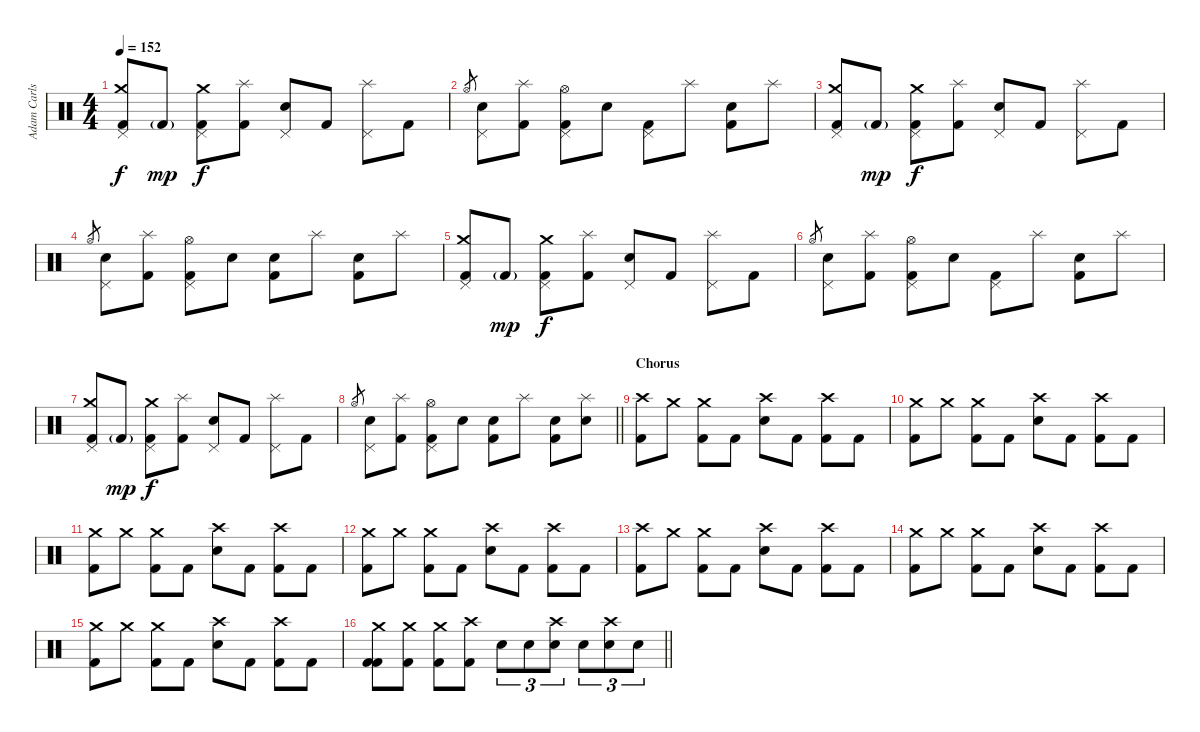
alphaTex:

\track ("Adam Carlson" "Adam Carls") {instrument percussion}
\staff {score}
\articulation defaults
\ts (4 4)
\tempo 152
\clef neutral
\ks c
("Pedal Hi-Hat (hit)" "Crash medium (hit)" "Kick (hit) 2").8{dy f} "Kick (hit) 2"{g}.8{dy mp} ("Pedal Hi-Hat (hit)" "Crash medium (hit)" "Kick (hit) 2").8{dy f} ("Splash (hit)" "Kick (hit) 2").8 ("Pedal Hi-Hat (hit)" "Electric Snare (hit)").8 "Kick (hit) 2".8 ("Pedal Hi-Hat (hit)" "Splash (hit)").8 "Kick (hit) 2".8 |
"Hi-Hat (open)".8{gr} ("Pedal Hi-Hat (hit)" "Electric Snare (hit)").8 ("Splash (hit)" "Kick (hit) 2").8 ("Pedal Hi-Hat (hit)" "Hi-Hat (open)" "Kick (hit) 2").8 "Electric Snare (hit)".8 ("Pedal Hi-Hat (hit)" "Kick (hit) 2").8 "Splash (hit)".8 ("Electric Snare (hit)" "Kick (hit) 2").8 "Splash (hit)".8 |
("Pedal Hi-Hat (hit)" "Crash medium (hit)" "Kick (hit) 2").8 "Kick (hit) 2"{g}.8{dy mp} ("Pedal Hi-Hat (hit)" "Crash medium (hit)" "Kick (hit) 2").8{dy f} ("Splash (hit)" "Kick (hit) 2").8 ("Pedal Hi-Hat (hit)" "Electric Snare (hit)").8 "Kick (hit) 2".8 ("Pedal Hi-Hat (hit)" "Splash (hit)").8 "Kick (hit) 2".8 |
"Hi-Hat (open)".8{gr} ("Pedal Hi-Hat (hit)" "Electric Snare (hit)").8 ("Splash (hit)" "Kick (hit) 2").8 ("Pedal Hi-Hat (hit)" "Hi-Hat (open)" "Kick (hit) 2").8 "Electric Snare (hit)".8 ("Electric Snare (hit)" "Kick (hit) 2").8 "Splash (hit)".8 ("Electric Snare (hit)" "Kick (hit) 2").8 "Splash (hit)".8 |
("Pedal Hi-Hat (hit)" "Crash medium (hit)" "Kick (hit) 2").8 "Kick (hit) 2"{g}.8{dy mp} ("Pedal Hi-Hat (hit)" "Crash medium (hit)" "Kick (hit) 2").8{dy f} ("Splash (hit)" "Kick (hit) 2").8 ("Pedal Hi-Hat (hit)" "Electric Snare (hit)").8 "Kick (hit) 2".8 ("Pedal Hi-Hat (hit)" "Splash (hit)").8 "Kick (hit) 2".8 |
"Hi-Hat (open)".8{gr} ("Pedal Hi-Hat (hit)" "Electric Snare (hit)").8 ("Splash (hit)" "Kick (hit) 2").8 ("Pedal Hi-Hat (hit)" "Hi-Hat (open)" "Kick (hit) 2").8 "Electric Snare (hit)".8 ("Pedal Hi-Hat (hit)" "Kick (hit) 2").8 "Splash (hit)".8 ("Electric Snare (hit)" "Kick (hit) 2").8 "Splash (hit)".8 |
("Pedal Hi-Hat (hit)" "Crash medium (hit)" "Kick (hit) 2").8 "Kick (hit) 2"{g}.8{dy mp} ("Pedal Hi-Hat (hit)" "Crash medium (hit)" "Kick (hit) 2").8{dy f} ("Splash (hit)" "Kick (hit) 2").8 ("Pedal Hi-Hat (hit)" "Electric Snare (hit)").8 "Kick (hit) 2".8 ("Pedal Hi-Hat (hit)" "Splash (hit)").8 "Kick (hit) 2".8 |
\barLineRight lightlight "Hi-Hat (open)".8{gr}
("Pedal Hi-Hat (hit)" "Electric Snare (hit)").8 ("Splash (hit)" "Kick (hit) 2").8 ("Pedal Hi-Hat (hit)" "Hi-Hat (open)" "Kick (hit) 2").8 "Electric Snare (hit)".8 ("Electric Snare (hit)" "Kick (hit) 2").8 "Splash (hit)".8 ("Electric Snare (hit)" "Kick (hit) 2").8 ("Electric Snare (hit)" "Splash (hit)").8 |
\section ("" "Chorus")
("Crash high (hit)" "Kick (hit) 2").8 "Crash medium (hit)".8 ("Crash medium (hit)" "Kick (hit) 2").8 "Kick (hit) 2".8 ("Electric Snare (hit)" "Crash high (hit)").8 "Kick (hit) 2".8 ("Kick (hit) 2" "Crash high (hit)").8 "Kick (hit) 2".8 |
("Crash medium (hit)" "Kick (hit) 2").8 "Crash medium (hit)".8 ("Crash medium (hit)" "Kick (hit) 2").8 "Kick (hit) 2".8 ("Electric Snare (hit)" "Crash high (hit)").8 "Kick (hit) 2".8 ("Kick (hit) 2" "Crash high (hit)").8 "Kick (hit) 2".8 |
("Crash medium (hit)" "Kick (hit) 2").8 "Crash medium (hit)".8 ("Crash medium (hit)" "Kick (hit) 2").8 "Kick (hit) 2".8 ("Electric Snare (hit)" "Crash high (hit)").8 "Kick (hit) 2".8 ("Kick (hit) 2" "Crash high (hit)").8 "Kick (hit) 2".8 |
("Crash medium (hit)" "Kick (hit) 2").8 "Crash medium (hit)".8 ("Crash medium (hit)" "Kick (hit) 2").8 "Kick (hit) 2".8 ("Electric Snare (hit)" "Crash high (hit)").8 "Kick (hit) 2".8 ("Kick (hit) 2" "Crash high (hit)").8 "Kick (hit) 2".8 |
("Crash high (hit)" "Kick (hit) 2").8 "Crash medium (hit)".8 ("Crash medium (hit)" "Kick (hit) 2").8 "Kick (hit) 2".8 ("Electric Snare (hit)" "Crash high (hit)").8 "Kick (hit) 2".8 ("Kick (hit) 2" "Crash high (hit)").8 "Kick (hit) 2".8 |
("Crash medium (hit)" "Kick (hit) 2").8 "Crash medium (hit)".8 ("Crash medium (hit)" "Kick (hit) 2").8 "Kick (hit) 2".8 ("Electric Snare (hit)" "Crash high (hit)").8 "Kick (hit) 2".8 ("Kick (hit) 2" "Crash high (hit)").8 "Kick (hit) 2".8 |
("Crash medium (hit)" "Kick (hit) 2").8 "Crash medium (hit)".8 ("Crash medium (hit)" "Kick (hit) 2").8 "Kick (hit) 2".8 ("Electric Snare (hit)" "Crash high (hit)").8 "Kick (hit) 2".8 ("Kick (hit) 2" "Crash high (hit)").8 "Kick (hit) 2".8 |
\barLineRight lightlight
("Crash medium (hit)" "Kick (hit) 2" "Kick (hit) 2").8 ("Crash medium (hit)" "Kick (hit) 2").8 ("Crash medium (hit)" "Kick (hit) 2").8 ("Crash high (hit)" "Kick (hit) 2").8 "Electric Snare (hit)".8{tu (3 2)} "Electric Snare (hit)".8{tu (3 2)} ("Electric Snare (hit)" "Crash high (hit)").8{tu (3 2)} "Electric Snare (hit)".8{tu (3 2)} ("Electric Snare (hit)" "Crash high (hit)").8{tu (3 2)} "Electric Snare (hit)".8{tu (3 2)}
